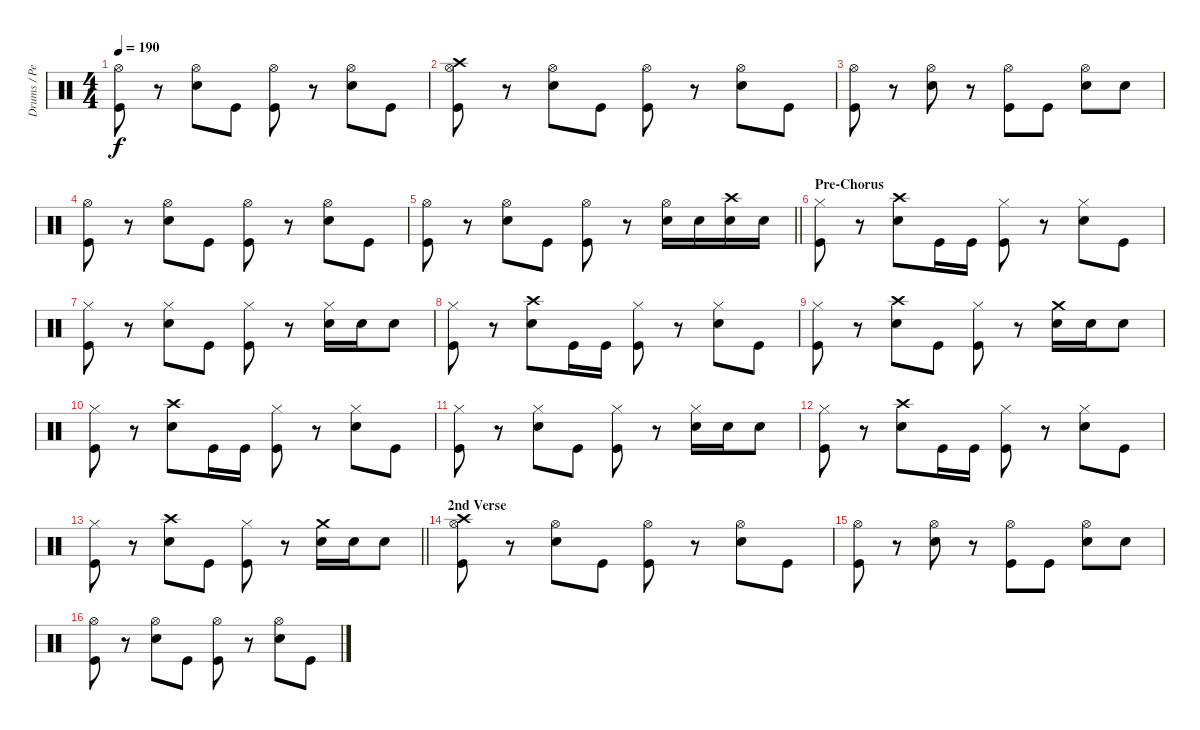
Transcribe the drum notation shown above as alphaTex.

\track ("Drums / Percussion" "Drums / Pe") {instrument percussion}
\staff {score}
\articulation defaults
\ts (4 4)
\tempo 190
\clef neutral
\ks c
("Hi-Hat (open)" "Kick (hit)").8{dy f} r.8 ("Hi-Hat (open)" "Electric Snare (hit)").8 "Kick (hit)".8 ("Hi-Hat (open)" "Kick (hit)").8 r.8 ("Hi-Hat (open)" "Electric Snare (hit)").8 "Kick (hit)".8 |
("Hi-Hat (open)" "Crash high (hit)" "Kick (hit)").8 r.8 ("Hi-Hat (open)" "Electric Snare (hit)").8 "Kick (hit)".8 ("Hi-Hat (open)" "Kick (hit)").8 r.8 ("Hi-Hat (open)" "Electric Snare (hit)").8 "Kick (hit)".8 |
("Hi-Hat (open)" "Kick (hit)").8 r.8 ("Hi-Hat (open)" "Electric Snare (hit)").8 r.8 ("Hi-Hat (open)" "Kick (hit)").8 "Kick (hit)".8 ("Hi-Hat (open)" "Electric Snare (hit)").8 "Electric Snare (hit)".8 |
("Hi-Hat (open)" "Kick (hit)").8 r.8 ("Hi-Hat (open)" "Electric Snare (hit)").8 "Kick (hit)".8 ("Hi-Hat (open)" "Kick (hit)").8 r.8 ("Hi-Hat (open)" "Electric Snare (hit)").8 "Kick (hit)".8 |
\barLineRight lightlight
("Hi-Hat (open)" "Kick (hit)").8 r.8 ("Hi-Hat (open)" "Electric Snare (hit)").8 "Kick (hit)".8 ("Hi-Hat (open)" "Kick (hit)").8 r.8 ("Hi-Hat (open)" "Electric Snare (hit)").16 "Electric Snare (hit)".16 ("Crash high (hit)" "Electric Snare (hit)").16 "Electric Snare (hit)".16 |
\section ("" "Pre-Chorus")
("Hi-Hat (closed)" "Kick (hit)").8 r.8 ("Crash high (hit)" "Electric Snare (hit)").8 "Kick (hit)".16 "Kick (hit)".16 ("Hi-Hat (closed)" "Kick (hit)").8 r.8 ("Hi-Hat (closed)" "Electric Snare (hit)").8 "Kick (hit)".8 |
("Hi-Hat (closed)" "Kick (hit)").8 r.8 ("Hi-Hat (closed)" "Electric Snare (hit)").8 "Kick (hit)".8 ("Hi-Hat (closed)" "Kick (hit)").8 r.8 ("Hi-Hat (closed)" "Electric Snare (hit)").16 "Electric Snare (hit)".16 "Electric Snare (hit)".8 |
("Hi-Hat (closed)" "Kick (hit)").8 r.8 ("Crash high (hit)" "Electric Snare (hit)").8 "Kick (hit)".16 "Kick (hit)".16 ("Hi-Hat (closed)" "Kick (hit)").8 r.8 ("Hi-Hat (closed)" "Electric Snare (hit)").8 "Kick (hit)".8 |
("Hi-Hat (closed)" "Kick (hit)").8 r.8 ("Crash high (hit)" "Electric Snare (hit)").8 "Kick (hit)".8 ("Hi-Hat (closed)" "Kick (hit)").8 r.8 ("Crash medium (hit)" "Electric Snare (hit)").16 "Electric Snare (hit)".16 "Electric Snare (hit)".8 |
("Hi-Hat (closed)" "Kick (hit)").8 r.8 ("Crash high (hit)" "Electric Snare (hit)").8 "Kick (hit)".16 "Kick (hit)".16 ("Hi-Hat (closed)" "Kick (hit)").8 r.8 ("Hi-Hat (closed)" "Electric Snare (hit)").8 "Kick (hit)".8 |
("Hi-Hat (closed)" "Kick (hit)").8 r.8 ("Hi-Hat (closed)" "Electric Snare (hit)").8 "Kick (hit)".8 ("Hi-Hat (closed)" "Kick (hit)").8 r.8 ("Hi-Hat (closed)" "Electric Snare (hit)").16 "Electric Snare (hit)".16 "Electric Snare (hit)".8 |
("Hi-Hat (closed)" "Kick (hit)").8 r.8 ("Crash high (hit)" "Electric Snare (hit)").8 "Kick (hit)".16 "Kick (hit)".16 ("Hi-Hat (closed)" "Kick (hit)").8 r.8 ("Hi-Hat (closed)" "Electric Snare (hit)").8 "Kick (hit)".8 |
\barLineRight lightlight
("Hi-Hat (closed)" "Kick (hit)").8 r.8 ("Crash high (hit)" "Electric Snare (hit)").8 "Kick (hit)".8 ("Hi-Hat (closed)" "Kick (hit)").8 r.8 ("Crash medium (hit)" "Electric Snare (hit)").16 "Electric Snare (hit)".16 "Electric Snare (hit)".8 |
\section ("" "2nd Verse")
("Hi-Hat (open)" "Crash high (hit)" "Kick (hit)").8 r.8 ("Hi-Hat (open)" "Electric Snare (hit)").8 "Kick (hit)".8 ("Hi-Hat (open)" "Kick (hit)").8 r.8 ("Hi-Hat (open)" "Electric Snare (hit)").8 "Kick (hit)".8 |
("Hi-Hat (open)" "Kick (hit)").8 r.8 ("Hi-Hat (open)" "Electric Snare (hit)").8 r.8 ("Hi-Hat (open)" "Kick (hit)").8 "Kick (hit)".8 ("Hi-Hat (open)" "Electric Snare (hit)").8 "Electric Snare (hit)".8 |
("Hi-Hat (open)" "Kick (hit)").8 r.8 ("Hi-Hat (open)" "Electric Snare (hit)").8 "Kick (hit)".8 ("Hi-Hat (open)" "Kick (hit)").8 r.8 ("Hi-Hat (open)" "Electric Snare (hit)").8 "Kick (hit)".8
